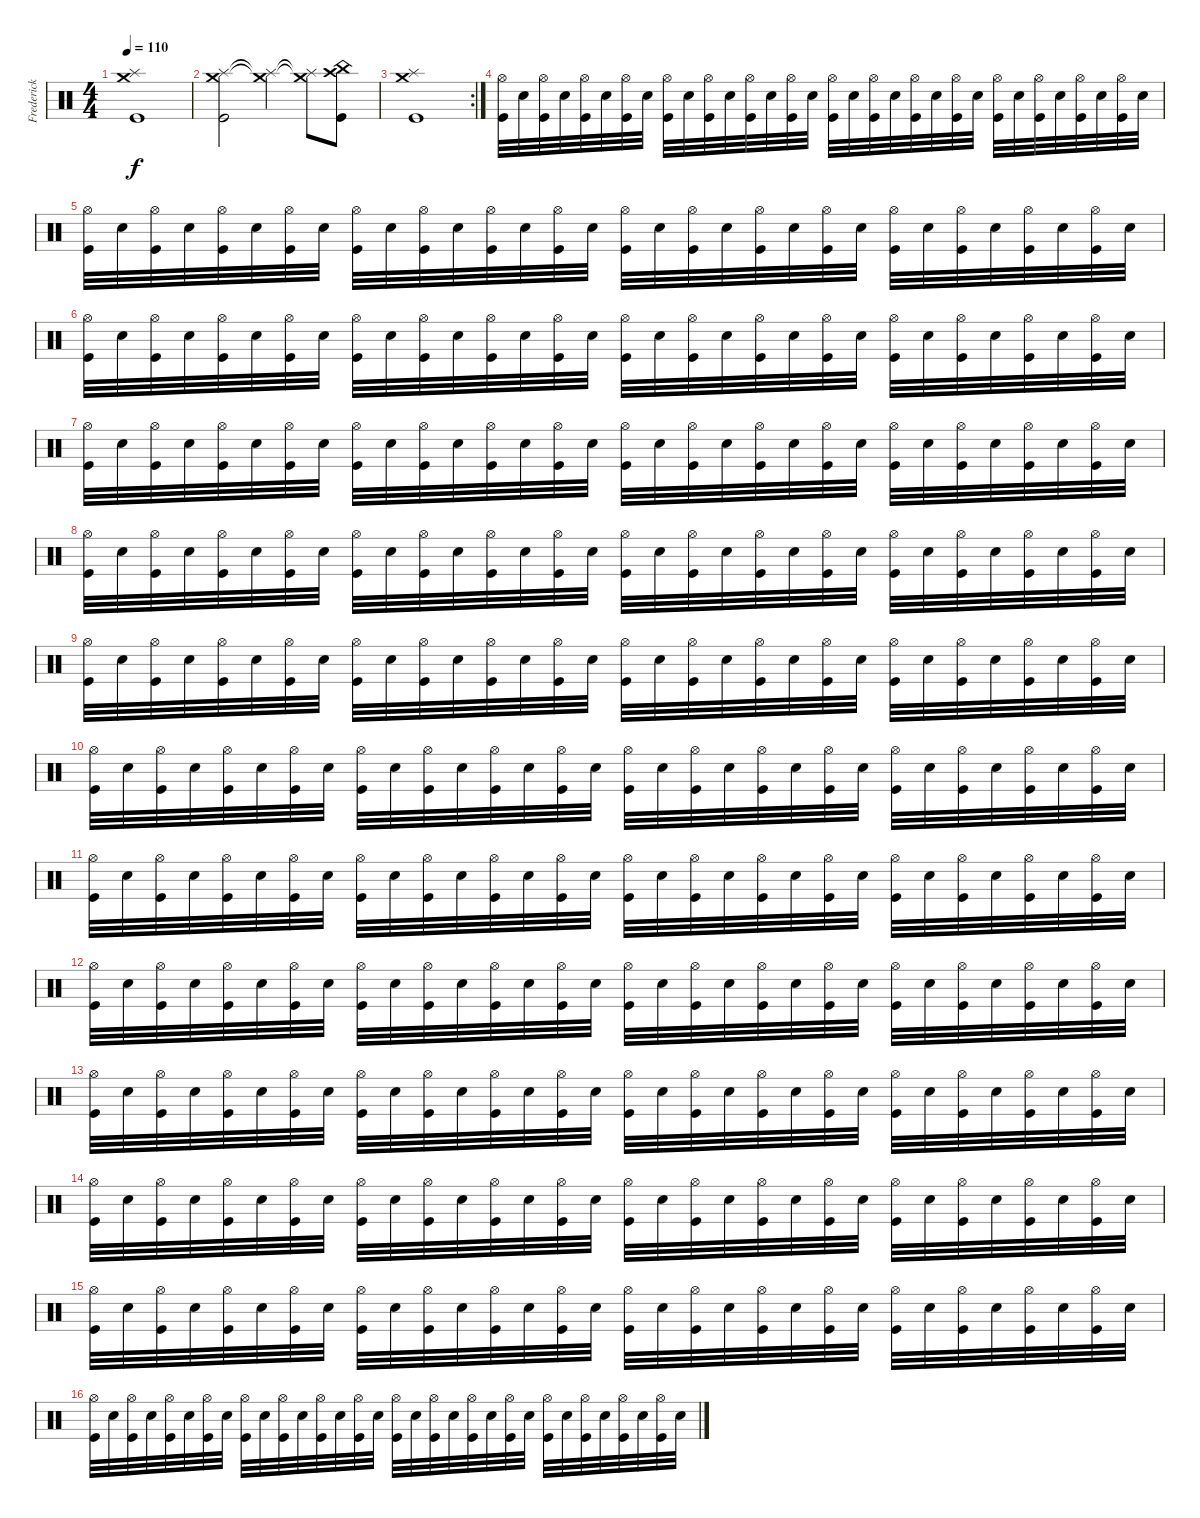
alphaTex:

\track ("Frederick" "Frederick") {instrument percussion}
\staff {score}
\articulation defaults
\ts (4 4)
\tempo 110
\clef neutral
\ks c
("Crash medium (hit)" "Splash (hit)" "Kick (hit)").1{dy f} |
("Crash medium (hit)" "Splash (hit)" "Kick (hit)").2 ("Crash medium (hit)"{t} "Splash (hit)"{t}).4 ("Crash medium (hit)"{t} "Splash (hit)"{t}).8 ("Crash high (hit)" "China (hit)" "Kick (hit)").8 |
\rc 2
("Crash medium (hit)" "Splash (hit)" "Kick (hit)").1 |
("Hi-Hat (open)" "Kick (hit)").32 "Electric Snare (hit)".32 ("Hi-Hat (open)" "Kick (hit)").32 "Electric Snare (hit)".32 ("Hi-Hat (open)" "Kick (hit)").32 "Electric Snare (hit)".32 ("Hi-Hat (open)" "Kick (hit)").32 "Electric Snare (hit)".32 ("Hi-Hat (open)" "Kick (hit)").32 "Electric Snare (hit)".32 ("Hi-Hat (open)" "Kick (hit)").32 "Electric Snare (hit)".32 ("Hi-Hat (open)" "Kick (hit)").32 "Electric Snare (hit)".32 ("Hi-Hat (open)" "Kick (hit)").32 "Electric Snare (hit)".32 ("Hi-Hat (open)" "Kick (hit)").32 "Electric Snare (hit)".32 ("Hi-Hat (open)" "Kick (hit)").32 "Electric Snare (hit)".32 ("Hi-Hat (open)" "Kick (hit)").32 "Electric Snare (hit)".32 ("Hi-Hat (open)" "Kick (hit)").32 "Electric Snare (hit)".32 ("Hi-Hat (open)" "Kick (hit)").32 "Electric Snare (hit)".32 ("Hi-Hat (open)" "Kick (hit)").32 "Electric Snare (hit)".32 ("Hi-Hat (open)" "Kick (hit)").32 "Electric Snare (hit)".32 ("Hi-Hat (open)" "Kick (hit)").32 "Electric Snare (hit)".32 |
("Hi-Hat (open)" "Kick (hit)").32 "Electric Snare (hit)".32 ("Hi-Hat (open)" "Kick (hit)").32 "Electric Snare (hit)".32 ("Hi-Hat (open)" "Kick (hit)").32 "Electric Snare (hit)".32 ("Hi-Hat (open)" "Kick (hit)").32 "Electric Snare (hit)".32 ("Hi-Hat (open)" "Kick (hit)").32 "Electric Snare (hit)".32 ("Hi-Hat (open)" "Kick (hit)").32 "Electric Snare (hit)".32 ("Hi-Hat (open)" "Kick (hit)").32 "Electric Snare (hit)".32 ("Hi-Hat (open)" "Kick (hit)").32 "Electric Snare (hit)".32 ("Hi-Hat (open)" "Kick (hit)").32 "Electric Snare (hit)".32 ("Hi-Hat (open)" "Kick (hit)").32 "Electric Snare (hit)".32 ("Hi-Hat (open)" "Kick (hit)").32 "Electric Snare (hit)".32 ("Hi-Hat (open)" "Kick (hit)").32 "Electric Snare (hit)".32 ("Hi-Hat (open)" "Kick (hit)").32 "Electric Snare (hit)".32 ("Hi-Hat (open)" "Kick (hit)").32 "Electric Snare (hit)".32 ("Hi-Hat (open)" "Kick (hit)").32 "Electric Snare (hit)".32 ("Hi-Hat (open)" "Kick (hit)").32 "Electric Snare (hit)".32 |
("Hi-Hat (open)" "Kick (hit)").32 "Electric Snare (hit)".32 ("Hi-Hat (open)" "Kick (hit)").32 "Electric Snare (hit)".32 ("Hi-Hat (open)" "Kick (hit)").32 "Electric Snare (hit)".32 ("Hi-Hat (open)" "Kick (hit)").32 "Electric Snare (hit)".32 ("Hi-Hat (open)" "Kick (hit)").32 "Electric Snare (hit)".32 ("Hi-Hat (open)" "Kick (hit)").32 "Electric Snare (hit)".32 ("Hi-Hat (open)" "Kick (hit)").32 "Electric Snare (hit)".32 ("Hi-Hat (open)" "Kick (hit)").32 "Electric Snare (hit)".32 ("Hi-Hat (open)" "Kick (hit)").32 "Electric Snare (hit)".32 ("Hi-Hat (open)" "Kick (hit)").32 "Electric Snare (hit)".32 ("Hi-Hat (open)" "Kick (hit)").32 "Electric Snare (hit)".32 ("Hi-Hat (open)" "Kick (hit)").32 "Electric Snare (hit)".32 ("Hi-Hat (open)" "Kick (hit)").32 "Electric Snare (hit)".32 ("Hi-Hat (open)" "Kick (hit)").32 "Electric Snare (hit)".32 ("Hi-Hat (open)" "Kick (hit)").32 "Electric Snare (hit)".32 ("Hi-Hat (open)" "Kick (hit)").32 "Electric Snare (hit)".32 |
("Hi-Hat (open)" "Kick (hit)").32 "Electric Snare (hit)".32 ("Hi-Hat (open)" "Kick (hit)").32 "Electric Snare (hit)".32 ("Hi-Hat (open)" "Kick (hit)").32 "Electric Snare (hit)".32 ("Hi-Hat (open)" "Kick (hit)").32 "Electric Snare (hit)".32 ("Hi-Hat (open)" "Kick (hit)").32 "Electric Snare (hit)".32 ("Hi-Hat (open)" "Kick (hit)").32 "Electric Snare (hit)".32 ("Hi-Hat (open)" "Kick (hit)").32 "Electric Snare (hit)".32 ("Hi-Hat (open)" "Kick (hit)").32 "Electric Snare (hit)".32 ("Hi-Hat (open)" "Kick (hit)").32 "Electric Snare (hit)".32 ("Hi-Hat (open)" "Kick (hit)").32 "Electric Snare (hit)".32 ("Hi-Hat (open)" "Kick (hit)").32 "Electric Snare (hit)".32 ("Hi-Hat (open)" "Kick (hit)").32 "Electric Snare (hit)".32 ("Hi-Hat (open)" "Kick (hit)").32 "Electric Snare (hit)".32 ("Hi-Hat (open)" "Kick (hit)").32 "Electric Snare (hit)".32 ("Hi-Hat (open)" "Kick (hit)").32 "Electric Snare (hit)".32 ("Hi-Hat (open)" "Kick (hit)").32 "Electric Snare (hit)".32 |
("Hi-Hat (open)" "Kick (hit)").32 "Electric Snare (hit)".32 ("Hi-Hat (open)" "Kick (hit)").32 "Electric Snare (hit)".32 ("Hi-Hat (open)" "Kick (hit)").32 "Electric Snare (hit)".32 ("Hi-Hat (open)" "Kick (hit)").32 "Electric Snare (hit)".32 ("Hi-Hat (open)" "Kick (hit)").32 "Electric Snare (hit)".32 ("Hi-Hat (open)" "Kick (hit)").32 "Electric Snare (hit)".32 ("Hi-Hat (open)" "Kick (hit)").32 "Electric Snare (hit)".32 ("Hi-Hat (open)" "Kick (hit)").32 "Electric Snare (hit)".32 ("Hi-Hat (open)" "Kick (hit)").32 "Electric Snare (hit)".32 ("Hi-Hat (open)" "Kick (hit)").32 "Electric Snare (hit)".32 ("Hi-Hat (open)" "Kick (hit)").32 "Electric Snare (hit)".32 ("Hi-Hat (open)" "Kick (hit)").32 "Electric Snare (hit)".32 ("Hi-Hat (open)" "Kick (hit)").32 "Electric Snare (hit)".32 ("Hi-Hat (open)" "Kick (hit)").32 "Electric Snare (hit)".32 ("Hi-Hat (open)" "Kick (hit)").32 "Electric Snare (hit)".32 ("Hi-Hat (open)" "Kick (hit)").32 "Electric Snare (hit)".32 |
("Hi-Hat (open)" "Kick (hit)").32 "Electric Snare (hit)".32 ("Hi-Hat (open)" "Kick (hit)").32 "Electric Snare (hit)".32 ("Hi-Hat (open)" "Kick (hit)").32 "Electric Snare (hit)".32 ("Hi-Hat (open)" "Kick (hit)").32 "Electric Snare (hit)".32 ("Hi-Hat (open)" "Kick (hit)").32 "Electric Snare (hit)".32 ("Hi-Hat (open)" "Kick (hit)").32 "Electric Snare (hit)".32 ("Hi-Hat (open)" "Kick (hit)").32 "Electric Snare (hit)".32 ("Hi-Hat (open)" "Kick (hit)").32 "Electric Snare (hit)".32 ("Hi-Hat (open)" "Kick (hit)").32 "Electric Snare (hit)".32 ("Hi-Hat (open)" "Kick (hit)").32 "Electric Snare (hit)".32 ("Hi-Hat (open)" "Kick (hit)").32 "Electric Snare (hit)".32 ("Hi-Hat (open)" "Kick (hit)").32 "Electric Snare (hit)".32 ("Hi-Hat (open)" "Kick (hit)").32 "Electric Snare (hit)".32 ("Hi-Hat (open)" "Kick (hit)").32 "Electric Snare (hit)".32 ("Hi-Hat (open)" "Kick (hit)").32 "Electric Snare (hit)".32 ("Hi-Hat (open)" "Kick (hit)").32 "Electric Snare (hit)".32 |
("Hi-Hat (open)" "Kick (hit)").32 "Electric Snare (hit)".32 ("Hi-Hat (open)" "Kick (hit)").32 "Electric Snare (hit)".32 ("Hi-Hat (open)" "Kick (hit)").32 "Electric Snare (hit)".32 ("Hi-Hat (open)" "Kick (hit)").32 "Electric Snare (hit)".32 ("Hi-Hat (open)" "Kick (hit)").32 "Electric Snare (hit)".32 ("Hi-Hat (open)" "Kick (hit)").32 "Electric Snare (hit)".32 ("Hi-Hat (open)" "Kick (hit)").32 "Electric Snare (hit)".32 ("Hi-Hat (open)" "Kick (hit)").32 "Electric Snare (hit)".32 ("Hi-Hat (open)" "Kick (hit)").32 "Electric Snare (hit)".32 ("Hi-Hat (open)" "Kick (hit)").32 "Electric Snare (hit)".32 ("Hi-Hat (open)" "Kick (hit)").32 "Electric Snare (hit)".32 ("Hi-Hat (open)" "Kick (hit)").32 "Electric Snare (hit)".32 ("Hi-Hat (open)" "Kick (hit)").32 "Electric Snare (hit)".32 ("Hi-Hat (open)" "Kick (hit)").32 "Electric Snare (hit)".32 ("Hi-Hat (open)" "Kick (hit)").32 "Electric Snare (hit)".32 ("Hi-Hat (open)" "Kick (hit)").32 "Electric Snare (hit)".32 |
("Hi-Hat (open)" "Kick (hit)").32 "Electric Snare (hit)".32 ("Hi-Hat (open)" "Kick (hit)").32 "Electric Snare (hit)".32 ("Hi-Hat (open)" "Kick (hit)").32 "Electric Snare (hit)".32 ("Hi-Hat (open)" "Kick (hit)").32 "Electric Snare (hit)".32 ("Hi-Hat (open)" "Kick (hit)").32 "Electric Snare (hit)".32 ("Hi-Hat (open)" "Kick (hit)").32 "Electric Snare (hit)".32 ("Hi-Hat (open)" "Kick (hit)").32 "Electric Snare (hit)".32 ("Hi-Hat (open)" "Kick (hit)").32 "Electric Snare (hit)".32 ("Hi-Hat (open)" "Kick (hit)").32 "Electric Snare (hit)".32 ("Hi-Hat (open)" "Kick (hit)").32 "Electric Snare (hit)".32 ("Hi-Hat (open)" "Kick (hit)").32 "Electric Snare (hit)".32 ("Hi-Hat (open)" "Kick (hit)").32 "Electric Snare (hit)".32 ("Hi-Hat (open)" "Kick (hit)").32 "Electric Snare (hit)".32 ("Hi-Hat (open)" "Kick (hit)").32 "Electric Snare (hit)".32 ("Hi-Hat (open)" "Kick (hit)").32 "Electric Snare (hit)".32 ("Hi-Hat (open)" "Kick (hit)").32 "Electric Snare (hit)".32 |
("Hi-Hat (open)" "Kick (hit)").32 "Electric Snare (hit)".32 ("Hi-Hat (open)" "Kick (hit)").32 "Electric Snare (hit)".32 ("Hi-Hat (open)" "Kick (hit)").32 "Electric Snare (hit)".32 ("Hi-Hat (open)" "Kick (hit)").32 "Electric Snare (hit)".32 ("Hi-Hat (open)" "Kick (hit)").32 "Electric Snare (hit)".32 ("Hi-Hat (open)" "Kick (hit)").32 "Electric Snare (hit)".32 ("Hi-Hat (open)" "Kick (hit)").32 "Electric Snare (hit)".32 ("Hi-Hat (open)" "Kick (hit)").32 "Electric Snare (hit)".32 ("Hi-Hat (open)" "Kick (hit)").32 "Electric Snare (hit)".32 ("Hi-Hat (open)" "Kick (hit)").32 "Electric Snare (hit)".32 ("Hi-Hat (open)" "Kick (hit)").32 "Electric Snare (hit)".32 ("Hi-Hat (open)" "Kick (hit)").32 "Electric Snare (hit)".32 ("Hi-Hat (open)" "Kick (hit)").32 "Electric Snare (hit)".32 ("Hi-Hat (open)" "Kick (hit)").32 "Electric Snare (hit)".32 ("Hi-Hat (open)" "Kick (hit)").32 "Electric Snare (hit)".32 ("Hi-Hat (open)" "Kick (hit)").32 "Electric Snare (hit)".32 |
("Hi-Hat (open)" "Kick (hit)").32 "Electric Snare (hit)".32 ("Hi-Hat (open)" "Kick (hit)").32 "Electric Snare (hit)".32 ("Hi-Hat (open)" "Kick (hit)").32 "Electric Snare (hit)".32 ("Hi-Hat (open)" "Kick (hit)").32 "Electric Snare (hit)".32 ("Hi-Hat (open)" "Kick (hit)").32 "Electric Snare (hit)".32 ("Hi-Hat (open)" "Kick (hit)").32 "Electric Snare (hit)".32 ("Hi-Hat (open)" "Kick (hit)").32 "Electric Snare (hit)".32 ("Hi-Hat (open)" "Kick (hit)").32 "Electric Snare (hit)".32 ("Hi-Hat (open)" "Kick (hit)").32 "Electric Snare (hit)".32 ("Hi-Hat (open)" "Kick (hit)").32 "Electric Snare (hit)".32 ("Hi-Hat (open)" "Kick (hit)").32 "Electric Snare (hit)".32 ("Hi-Hat (open)" "Kick (hit)").32 "Electric Snare (hit)".32 ("Hi-Hat (open)" "Kick (hit)").32 "Electric Snare (hit)".32 ("Hi-Hat (open)" "Kick (hit)").32 "Electric Snare (hit)".32 ("Hi-Hat (open)" "Kick (hit)").32 "Electric Snare (hit)".32 ("Hi-Hat (open)" "Kick (hit)").32 "Electric Snare (hit)".32 |
("Hi-Hat (open)" "Kick (hit)").32 "Electric Snare (hit)".32 ("Hi-Hat (open)" "Kick (hit)").32 "Electric Snare (hit)".32 ("Hi-Hat (open)" "Kick (hit)").32 "Electric Snare (hit)".32 ("Hi-Hat (open)" "Kick (hit)").32 "Electric Snare (hit)".32 ("Hi-Hat (open)" "Kick (hit)").32 "Electric Snare (hit)".32 ("Hi-Hat (open)" "Kick (hit)").32 "Electric Snare (hit)".32 ("Hi-Hat (open)" "Kick (hit)").32 "Electric Snare (hit)".32 ("Hi-Hat (open)" "Kick (hit)").32 "Electric Snare (hit)".32 ("Hi-Hat (open)" "Kick (hit)").32 "Electric Snare (hit)".32 ("Hi-Hat (open)" "Kick (hit)").32 "Electric Snare (hit)".32 ("Hi-Hat (open)" "Kick (hit)").32 "Electric Snare (hit)".32 ("Hi-Hat (open)" "Kick (hit)").32 "Electric Snare (hit)".32 ("Hi-Hat (open)" "Kick (hit)").32 "Electric Snare (hit)".32 ("Hi-Hat (open)" "Kick (hit)").32 "Electric Snare (hit)".32 ("Hi-Hat (open)" "Kick (hit)").32 "Electric Snare (hit)".32 ("Hi-Hat (open)" "Kick (hit)").32 "Electric Snare (hit)".32 |
("Hi-Hat (open)" "Kick (hit)").32 "Electric Snare (hit)".32 ("Hi-Hat (open)" "Kick (hit)").32 "Electric Snare (hit)".32 ("Hi-Hat (open)" "Kick (hit)").32 "Electric Snare (hit)".32 ("Hi-Hat (open)" "Kick (hit)").32 "Electric Snare (hit)".32 ("Hi-Hat (open)" "Kick (hit)").32 "Electric Snare (hit)".32 ("Hi-Hat (open)" "Kick (hit)").32 "Electric Snare (hit)".32 ("Hi-Hat (open)" "Kick (hit)").32 "Electric Snare (hit)".32 ("Hi-Hat (open)" "Kick (hit)").32 "Electric Snare (hit)".32 ("Hi-Hat (open)" "Kick (hit)").32 "Electric Snare (hit)".32 ("Hi-Hat (open)" "Kick (hit)").32 "Electric Snare (hit)".32 ("Hi-Hat (open)" "Kick (hit)").32 "Electric Snare (hit)".32 ("Hi-Hat (open)" "Kick (hit)").32 "Electric Snare (hit)".32 ("Hi-Hat (open)" "Kick (hit)").32 "Electric Snare (hit)".32 ("Hi-Hat (open)" "Kick (hit)").32 "Electric Snare (hit)".32 ("Hi-Hat (open)" "Kick (hit)").32 "Electric Snare (hit)".32 ("Hi-Hat (open)" "Kick (hit)").32 "Electric Snare (hit)".32 |
("Hi-Hat (open)" "Kick (hit)").32 "Electric Snare (hit)".32 ("Hi-Hat (open)" "Kick (hit)").32 "Electric Snare (hit)".32 ("Hi-Hat (open)" "Kick (hit)").32 "Electric Snare (hit)".32 ("Hi-Hat (open)" "Kick (hit)").32 "Electric Snare (hit)".32 ("Hi-Hat (open)" "Kick (hit)").32 "Electric Snare (hit)".32 ("Hi-Hat (open)" "Kick (hit)").32 "Electric Snare (hit)".32 ("Hi-Hat (open)" "Kick (hit)").32 "Electric Snare (hit)".32 ("Hi-Hat (open)" "Kick (hit)").32 "Electric Snare (hit)".32 ("Hi-Hat (open)" "Kick (hit)").32 "Electric Snare (hit)".32 ("Hi-Hat (open)" "Kick (hit)").32 "Electric Snare (hit)".32 ("Hi-Hat (open)" "Kick (hit)").32 "Electric Snare (hit)".32 ("Hi-Hat (open)" "Kick (hit)").32 "Electric Snare (hit)".32 ("Hi-Hat (open)" "Kick (hit)").32 "Electric Snare (hit)".32 ("Hi-Hat (open)" "Kick (hit)").32 "Electric Snare (hit)".32 ("Hi-Hat (open)" "Kick (hit)").32 "Electric Snare (hit)".32 ("Hi-Hat (open)" "Kick (hit)").32 "Electric Snare (hit)".32
